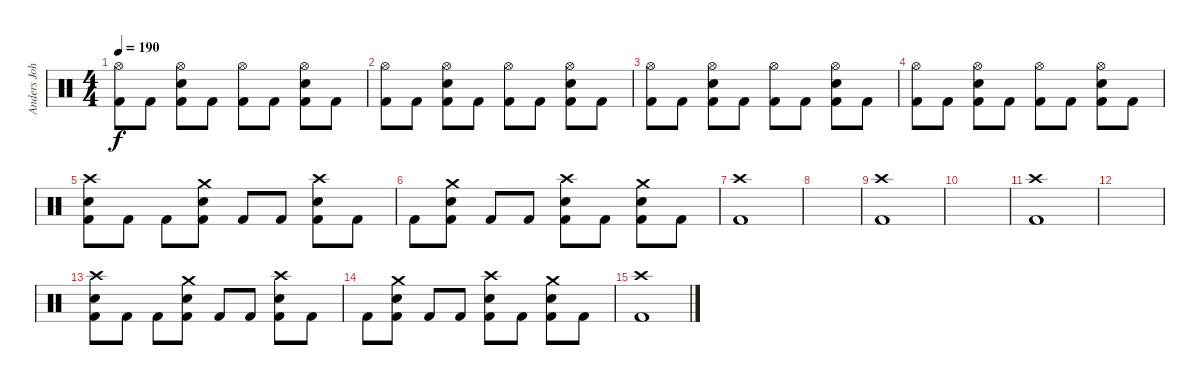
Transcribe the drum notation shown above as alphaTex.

\track ("Anders Johansson Drums" "Anders Joh") {instrument percussion}
\staff {score}
\articulation defaults
\ts (4 4)
\tempo 190
\clef neutral
\ks c
("Hi-Hat (open)" "Kick (hit) 2").8{dy f} "Kick (hit) 2".8 ("Hi-Hat (open)" "Snare (hit) 2" "Kick (hit) 2").8 "Kick (hit) 2".8 ("Hi-Hat (open)" "Kick (hit) 2").8 "Kick (hit) 2".8 ("Hi-Hat (open)" "Snare (hit) 2" "Kick (hit) 2").8 "Kick (hit) 2".8 |
("Hi-Hat (open)" "Kick (hit) 2").8 "Kick (hit) 2".8 ("Hi-Hat (open)" "Snare (hit) 2" "Kick (hit) 2").8 "Kick (hit) 2".8 ("Hi-Hat (open)" "Kick (hit) 2").8 "Kick (hit) 2".8 ("Hi-Hat (open)" "Snare (hit) 2" "Kick (hit) 2").8 "Kick (hit) 2".8 |
("Hi-Hat (open)" "Kick (hit) 2").8 "Kick (hit) 2".8 ("Hi-Hat (open)" "Snare (hit) 2" "Kick (hit) 2").8 "Kick (hit) 2".8 ("Hi-Hat (open)" "Kick (hit) 2").8 "Kick (hit) 2".8 ("Hi-Hat (open)" "Snare (hit) 2" "Kick (hit) 2").8 "Kick (hit) 2".8 |
("Hi-Hat (open)" "Kick (hit) 2").8 "Kick (hit) 2".8 ("Hi-Hat (open)" "Snare (hit) 2" "Kick (hit) 2").8 "Kick (hit) 2".8 ("Hi-Hat (open)" "Kick (hit) 2").8 "Kick (hit) 2".8 ("Hi-Hat (open)" "Snare (hit) 2" "Kick (hit) 2").8 "Kick (hit) 2".8 |
("Crash high (hit)" "Snare (hit) 2" "Kick (hit) 2").8 "Kick (hit) 2".8 "Kick (hit) 2".8 ("Crash medium (hit)" "Snare (hit) 2" "Kick (hit) 2").8 "Kick (hit) 2".8 "Kick (hit) 2".8 ("Crash high (hit)" "Snare (hit) 2" "Kick (hit) 2").8 "Kick (hit) 2".8 |
"Kick (hit) 2".8 ("Crash medium (hit)" "Snare (hit) 2" "Kick (hit) 2").8 "Kick (hit) 2".8 "Kick (hit) 2".8 ("Crash high (hit)" "Snare (hit) 2" "Kick (hit) 2").8 "Kick (hit) 2".8 ("Crash medium (hit)" "Snare (hit) 2" "Kick (hit) 2").8 "Kick (hit) 2".8 |
("Crash high (hit)" "Kick (hit) 2").1 |
|
("Crash high (hit)" "Kick (hit) 2").1 |
|
("Crash high (hit)" "Kick (hit) 2").1 |
|
("Crash high (hit)" "Snare (hit) 2" "Kick (hit) 2").8 "Kick (hit) 2".8 "Kick (hit) 2".8 ("Crash medium (hit)" "Snare (hit) 2" "Kick (hit) 2").8 "Kick (hit) 2".8 "Kick (hit) 2".8 ("Crash high (hit)" "Snare (hit) 2" "Kick (hit) 2").8 "Kick (hit) 2".8 |
"Kick (hit) 2".8 ("Crash medium (hit)" "Snare (hit) 2" "Kick (hit) 2").8 "Kick (hit) 2".8 "Kick (hit) 2".8 ("Crash high (hit)" "Snare (hit) 2" "Kick (hit) 2").8 "Kick (hit) 2".8 ("Crash medium (hit)" "Snare (hit) 2" "Kick (hit) 2").8 "Kick (hit) 2".8 |
("Crash high (hit)" "Kick (hit) 2").1
